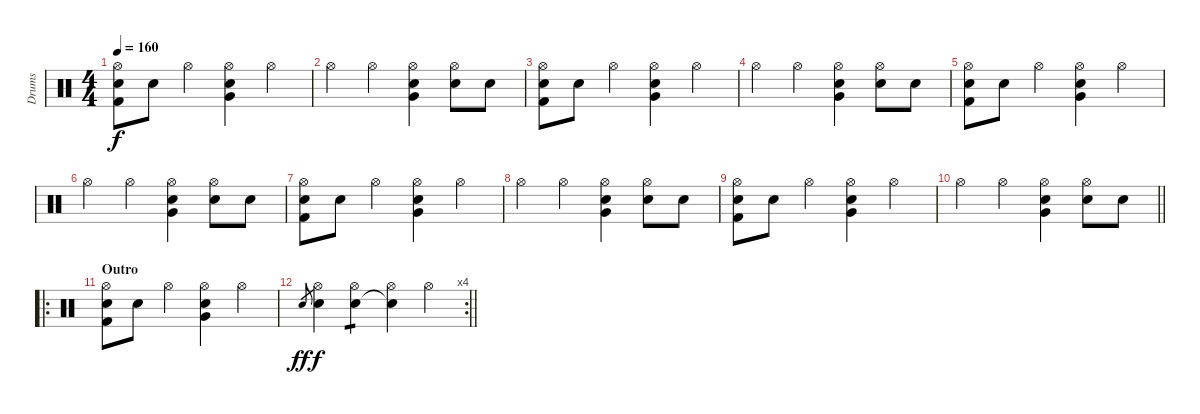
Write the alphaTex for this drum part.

\track ("Drums" "Drums") {instrument percussion}
\staff {score}
\articulation defaults
\ts (4 4)
\tempo 160
\clef neutral
\ks c
("Hi-Hat (open)" "Electric Snare (hit)" "Kick (hit) 2").8{dy f} "Electric Snare (hit)".8 "Hi-Hat (open)".4 ("Hi-Hat (open)" "Electric Snare (hit)" "Very Low Tom (hit)").4 "Hi-Hat (open)".4 |
"Hi-Hat (open)".4 "Hi-Hat (open)".4 ("Hi-Hat (open)" "Electric Snare (hit)" "Very Low Tom (hit)").4 ("Hi-Hat (open)" "Snare (hit) 2").8 "Electric Snare (hit)".8 |
("Hi-Hat (open)" "Electric Snare (hit)" "Kick (hit) 2").8 "Electric Snare (hit)".8 "Hi-Hat (open)".4 ("Hi-Hat (open)" "Electric Snare (hit)" "Very Low Tom (hit)").4 "Hi-Hat (open)".4 |
"Hi-Hat (open)".4 "Hi-Hat (open)".4 ("Hi-Hat (open)" "Electric Snare (hit)" "Very Low Tom (hit)").4 ("Hi-Hat (open)" "Snare (hit) 2").8 "Electric Snare (hit)".8 |
("Hi-Hat (open)" "Electric Snare (hit)" "Kick (hit) 2").8 "Electric Snare (hit)".8 "Hi-Hat (open)".4 ("Hi-Hat (open)" "Electric Snare (hit)" "Very Low Tom (hit)").4 "Hi-Hat (open)".4 |
"Hi-Hat (open)".4 "Hi-Hat (open)".4 ("Hi-Hat (open)" "Electric Snare (hit)" "Very Low Tom (hit)").4 ("Hi-Hat (open)" "Snare (hit) 2").8 "Electric Snare (hit)".8 |
("Hi-Hat (open)" "Electric Snare (hit)" "Kick (hit) 2").8 "Electric Snare (hit)".8 "Hi-Hat (open)".4 ("Hi-Hat (open)" "Electric Snare (hit)" "Very Low Tom (hit)").4 "Hi-Hat (open)".4 |
"Hi-Hat (open)".4 "Hi-Hat (open)".4 ("Hi-Hat (open)" "Electric Snare (hit)" "Very Low Tom (hit)").4 ("Hi-Hat (open)" "Snare (hit) 2").8 "Electric Snare (hit)".8 |
("Hi-Hat (open)" "Electric Snare (hit)" "Kick (hit) 2").8 "Electric Snare (hit)".8 "Hi-Hat (open)".4 ("Hi-Hat (open)" "Electric Snare (hit)" "Very Low Tom (hit)").4 "Hi-Hat (open)".4 |
\barLineRight lightlight "Hi-Hat (open)".4 "Hi-Hat (open)".4
("Hi-Hat (open)" "Electric Snare (hit)" "Very Low Tom (hit)").4 ("Hi-Hat (open)" "Snare (hit) 2").8 "Electric Snare (hit)".8 |
\ro
\section ("" "Outro")
("Hi-Hat (open)" "Electric Snare (hit)" "Kick (hit) 2").8 "Electric Snare (hit)".8 "Hi-Hat (open)".4 ("Hi-Hat (open)" "Electric Snare (hit)" "Very Low Tom (hit)").4 "Hi-Hat (open)".4 |
\rc 4
\barLineRight lightlight "Electric Snare (hit)".8{gr dy ff}
("Hi-Hat (open)" "Electric Snare (hit)").4{dy f} ("Hi-Hat (open)" "Electric Snare (hit)").4{tp 1} ("Hi-Hat (open)" "Electric Snare (hit)"{t}).4 "Hi-Hat (open)".4
